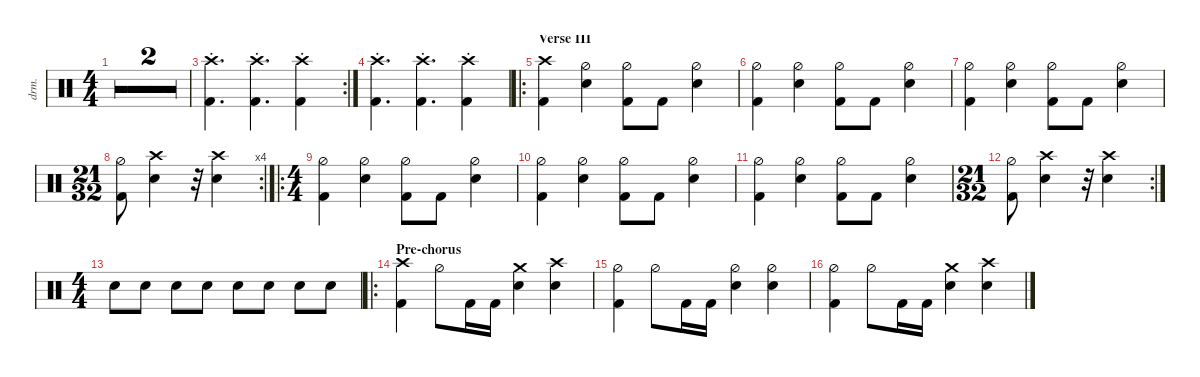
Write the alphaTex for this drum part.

\defaultSystemsLayout 4
\hideDynamics
\bracketExtendMode nobrackets
\track ("Drums" "drm.") {defaultSystemsLayout 4 multiBarRest instrument percussion}
\staff
\articulation defaults
\ts (4 4)
\tempo 212
\clef neutral
\ks c
r.1{dy f} |
r.1 |
\rc 2
("Kick (hit) 2" "Crash high (hit)"{st}).4{d} ("Kick (hit) 2" "Crash high (hit)"{st}).4{d} ("Kick (hit) 2" "Crash high (hit)"{st}).4 |
("Kick (hit) 2" "Crash high (hit)"{st}).4{d} ("Kick (hit) 2" "Crash high (hit)"{st}).4{d} ("Kick (hit) 2" "Crash high (hit)"{st}).4 |
\ro
\section ("" "Verse III")
("Crash high (hit)" "Kick (hit) 2").4 ("Hi-Hat (half)" "Snare (hit) 2").4 ("Hi-Hat (half)" "Kick (hit) 2").8 "Kick (hit) 2".8 ("Hi-Hat (half)" "Snare (hit) 2").4 |
("Kick (hit) 2" "Hi-Hat (half)").4 ("Hi-Hat (half)" "Snare (hit) 2").4 ("Hi-Hat (half)" "Kick (hit) 2").8 "Kick (hit) 2".8 ("Hi-Hat (half)" "Snare (hit) 2").4 |
("Kick (hit) 2" "Hi-Hat (half)").4 ("Hi-Hat (half)" "Snare (hit) 2").4 ("Hi-Hat (half)" "Kick (hit) 2").8 "Kick (hit) 2".8 ("Hi-Hat (half)" "Snare (hit) 2").4 |
\rc 4
\ts (21 32)
\beaming (8 3 2)
("Kick (hit) 2" "Hi-Hat (half)").8 ("Snare (hit) 2" "Crash high (hit)").4 r.32 ("Snare (hit) 2" "Crash high (hit)").4 |
\ro
\ts (4 4)
\beaming (8 2 2 2 2)
("Kick (hit) 2" "Hi-Hat (half)").4 ("Hi-Hat (half)" "Snare (hit) 2").4 ("Hi-Hat (half)" "Kick (hit) 2").8 "Kick (hit) 2".8 ("Hi-Hat (half)" "Snare (hit) 2").4 |
("Kick (hit) 2" "Hi-Hat (half)").4 ("Hi-Hat (half)" "Snare (hit) 2").4 ("Hi-Hat (half)" "Kick (hit) 2").8 "Kick (hit) 2".8 ("Hi-Hat (half)" "Snare (hit) 2").4 |
("Kick (hit) 2" "Hi-Hat (half)").4 ("Hi-Hat (half)" "Snare (hit) 2").4 ("Hi-Hat (half)" "Kick (hit) 2").8 "Kick (hit) 2".8 ("Hi-Hat (half)" "Snare (hit) 2").4 |
\rc 2
\ts (21 32)
\beaming (8 3 2)
("Kick (hit) 2" "Hi-Hat (half)").8 ("Snare (hit) 2" "Crash high (hit)").4 r.32 ("Snare (hit) 2" "Crash high (hit)").4 |
\ts (4 4)
\beaming (8 2 2 2 2)
"Snare (hit) 2".8 "Snare (hit) 2".8 "Snare (hit) 2".8 "Snare (hit) 2".8 "Snare (hit) 2".8 "Snare (hit) 2".8 "Snare (hit) 2".8 "Snare (hit) 2".8 |
\ro
\section ("" "Pre-chorus")
("Crash high (hit)" "Kick (hit) 2").4 "Hi-Hat (half)".8 "Kick (hit) 2".16 "Kick (hit) 2".16 ("Snare (hit) 2" "Crash medium (hit)").4 ("Snare (hit) 2" "Crash high (hit)").4 |
("Hi-Hat (half)" "Kick (hit) 2").4 "Hi-Hat (half)".8 "Kick (hit) 2".16 "Kick (hit) 2".16 ("Snare (hit) 2" "Hi-Hat (half)").4 ("Snare (hit) 2" "Hi-Hat (half)").4 |
("Hi-Hat (half)" "Kick (hit) 2").4 "Hi-Hat (half)".8 "Kick (hit) 2".16 "Kick (hit) 2".16 ("Snare (hit) 2" "Crash medium (hit)").4 ("Snare (hit) 2" "Crash high (hit)").4
